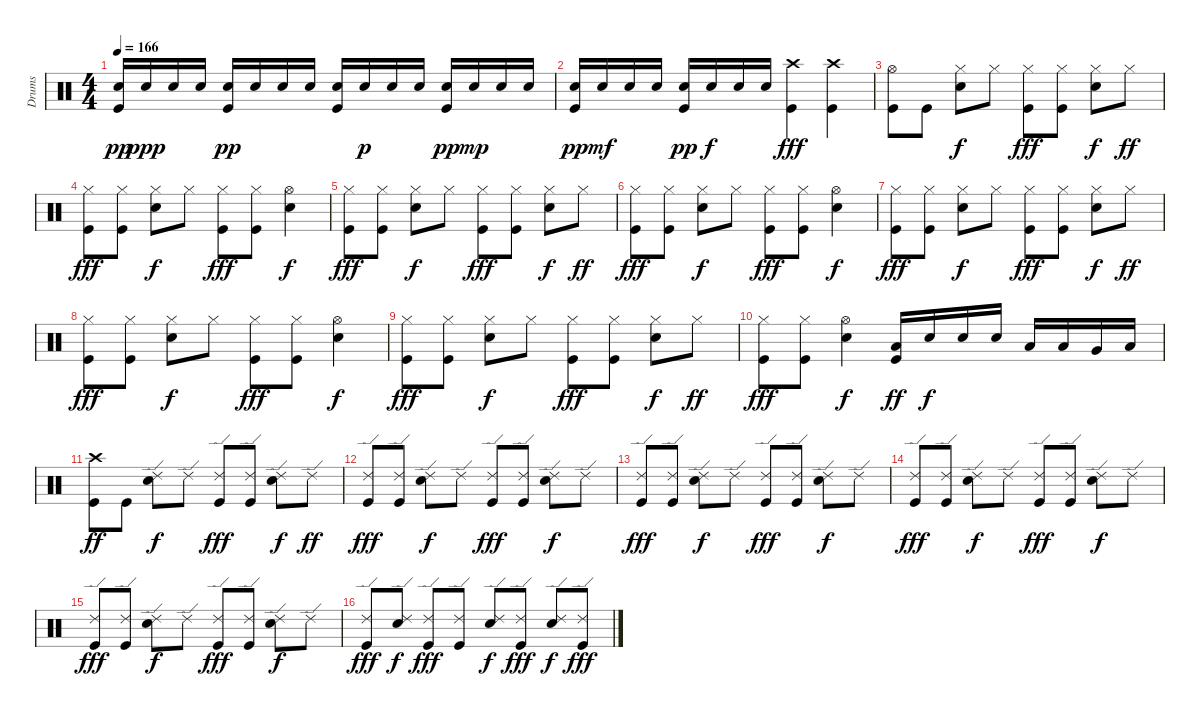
\track ("Drums" "Drums") {instrument percussion}
\staff {score}
\articulation defaults
\ts (4 4)
\tempo 166
\clef neutral
\ks c
("Snare (hit) 2" "Kick (hit)").16{dy pp} "Snare (hit) 2".16{dy ppp} "Snare (hit) 2".16 "Snare (hit) 2".16 ("Snare (hit) 2" "Kick (hit)").16{dy pp} "Snare (hit) 2".16 "Snare (hit) 2".16 "Snare (hit) 2".16 ("Snare (hit) 2" "Kick (hit)").16 "Snare (hit) 2".16{dy p} "Snare (hit) 2".16 "Snare (hit) 2".16 ("Snare (hit) 2" "Kick (hit)").16{dy pp} "Snare (hit) 2".16{dy mp} "Snare (hit) 2".16 "Snare (hit) 2".16 |
("Snare (hit) 2" "Kick (hit)").16{dy pp} "Snare (hit) 2".16{dy mf} "Snare (hit) 2".16 "Snare (hit) 2".16 ("Snare (hit) 2" "Kick (hit)").16{dy pp} "Snare (hit) 2".16{dy f} "Snare (hit) 2".16 "Snare (hit) 2".16 ("Crash high (hit)" "Kick (hit)").4{dy fff} ("Crash high (hit)" "Kick (hit)").4 |
("Hi-Hat (open)" "Kick (hit)").8 "Kick (hit)".8 ("Hi-Hat (closed)" "Snare (hit) 2").8{dy f} "Hi-Hat (closed)".8 ("Hi-Hat (closed)" "Kick (hit)").8{dy fff} ("Hi-Hat (closed)" "Kick (hit)").8 ("Hi-Hat (closed)" "Snare (hit) 2").8{dy f} "Hi-Hat (closed)".8{dy ff} |
("Hi-Hat (closed)" "Kick (hit)").8{dy fff} ("Hi-Hat (closed)" "Kick (hit)").8 ("Hi-Hat (closed)" "Snare (hit) 2").8{dy f} "Hi-Hat (closed)".8 ("Hi-Hat (closed)" "Kick (hit)").8{dy fff} ("Hi-Hat (closed)" "Kick (hit)").8 ("Hi-Hat (open)" "Snare (hit) 2").4{dy f} |
("Hi-Hat (closed)" "Kick (hit)").8{dy fff} ("Hi-Hat (closed)" "Kick (hit)").8 ("Hi-Hat (closed)" "Snare (hit) 2").8{dy f} "Hi-Hat (closed)".8 ("Hi-Hat (closed)" "Kick (hit)").8{dy fff} ("Hi-Hat (closed)" "Kick (hit)").8 ("Hi-Hat (closed)" "Snare (hit) 2").8{dy f} "Hi-Hat (closed)".8{dy ff} |
("Hi-Hat (closed)" "Kick (hit)").8{dy fff} ("Hi-Hat (closed)" "Kick (hit)").8 ("Hi-Hat (closed)" "Snare (hit) 2").8{dy f} "Hi-Hat (closed)".8 ("Hi-Hat (closed)" "Kick (hit)").8{dy fff} ("Hi-Hat (closed)" "Kick (hit)").8 ("Hi-Hat (open)" "Snare (hit) 2").4{dy f} |
("Hi-Hat (closed)" "Kick (hit)").8{dy fff} ("Hi-Hat (closed)" "Kick (hit)").8 ("Hi-Hat (closed)" "Snare (hit) 2").8{dy f} "Hi-Hat (closed)".8 ("Hi-Hat (closed)" "Kick (hit)").8{dy fff} ("Hi-Hat (closed)" "Kick (hit)").8 ("Hi-Hat (closed)" "Snare (hit) 2").8{dy f} "Hi-Hat (closed)".8{dy ff} |
("Hi-Hat (closed)" "Kick (hit)").8{dy fff} ("Hi-Hat (closed)" "Kick (hit)").8 ("Hi-Hat (closed)" "Snare (hit) 2").8{dy f} "Hi-Hat (closed)".8 ("Hi-Hat (closed)" "Kick (hit)").8{dy fff} ("Hi-Hat (closed)" "Kick (hit)").8 ("Hi-Hat (open)" "Snare (hit) 2").4{dy f} |
("Hi-Hat (closed)" "Kick (hit)").8{dy fff} ("Hi-Hat (closed)" "Kick (hit)").8 ("Hi-Hat (closed)" "Snare (hit) 2").8{dy f} "Hi-Hat (closed)".8 ("Hi-Hat (closed)" "Kick (hit)").8{dy fff} ("Hi-Hat (closed)" "Kick (hit)").8 ("Hi-Hat (closed)" "Snare (hit) 2").8{dy f} "Hi-Hat (closed)".8{dy ff} |
("Hi-Hat (closed)" "Kick (hit)").8{dy fff} ("Hi-Hat (closed)" "Kick (hit)").8 ("Hi-Hat (open)" "Snare (hit) 2").4{dy f} ("Low Tom (hit)" "Kick (hit)").16{dy ff} "Snare (hit) 2".16{dy f} "Snare (hit) 2".16 "Snare (hit) 2".16 "Low Tom (hit)".16 "Low Tom (hit)".16 "Very Low Tom (hit)".16 "Low Floor Tom (hit)".16 |
("Crash high (hit)" "Kick (hit)").8{dy ff} "Kick (hit)".8 ("Ride (edge) 2" "Snare (hit) 2").8{dy f} "Ride (edge) 2".8 ("Ride (edge) 2" "Kick (hit)").8{dy fff} ("Ride (edge) 2" "Kick (hit)").8 ("Ride (edge) 2" "Snare (hit) 2").8{dy f} "Ride (edge) 2".8{dy ff} |
("Ride (edge) 2" "Kick (hit)").8{dy fff} ("Ride (edge) 2" "Kick (hit)").8 ("Ride (edge) 2" "Snare (hit) 2").8{dy f} "Ride (edge) 2".8 ("Ride (edge) 2" "Kick (hit)").8{dy fff} ("Ride (edge) 2" "Kick (hit)").8 ("Ride (edge) 2" "Snare (hit) 2").8{dy f} "Ride (edge) 2".8 |
("Ride (edge) 2" "Kick (hit)").8{dy fff} ("Ride (edge) 2" "Kick (hit)").8 ("Ride (edge) 2" "Snare (hit) 2").8{dy f} "Ride (edge) 2".8 ("Ride (edge) 2" "Kick (hit)").8{dy fff} ("Ride (edge) 2" "Kick (hit)").8 ("Ride (edge) 2" "Snare (hit) 2").8{dy f} "Ride (edge) 2".8 |
("Ride (edge) 2" "Kick (hit)").8{dy fff} ("Ride (edge) 2" "Kick (hit)").8 ("Ride (edge) 2" "Snare (hit) 2").8{dy f} "Ride (edge) 2".8 ("Ride (edge) 2" "Kick (hit)").8{dy fff} ("Ride (edge) 2" "Kick (hit)").8 ("Ride (edge) 2" "Snare (hit) 2").8{dy f} "Ride (edge) 2".8 |
("Ride (edge) 2" "Kick (hit)").8{dy fff} ("Ride (edge) 2" "Kick (hit)").8 ("Ride (edge) 2" "Snare (hit) 2").8{dy f} "Ride (edge) 2".8 ("Ride (edge) 2" "Kick (hit)").8{dy fff} ("Ride (edge) 2" "Kick (hit)").8 ("Ride (edge) 2" "Snare (hit) 2").8{dy f} "Ride (edge) 2".8 |
("Ride (edge) 2" "Kick (hit)").8{dy fff} ("Ride (edge) 2" "Snare (hit) 2").8{dy f} ("Ride (edge) 2" "Kick (hit)").8{dy fff} ("Ride (edge) 2" "Kick (hit)").8 ("Ride (edge) 2" "Snare (hit) 2").8{dy f} ("Ride (edge) 2" "Kick (hit)").8{dy fff} ("Ride (edge) 2" "Snare (hit) 2").8{dy f} ("Ride (edge) 2" "Kick (hit)").8{dy fff}
